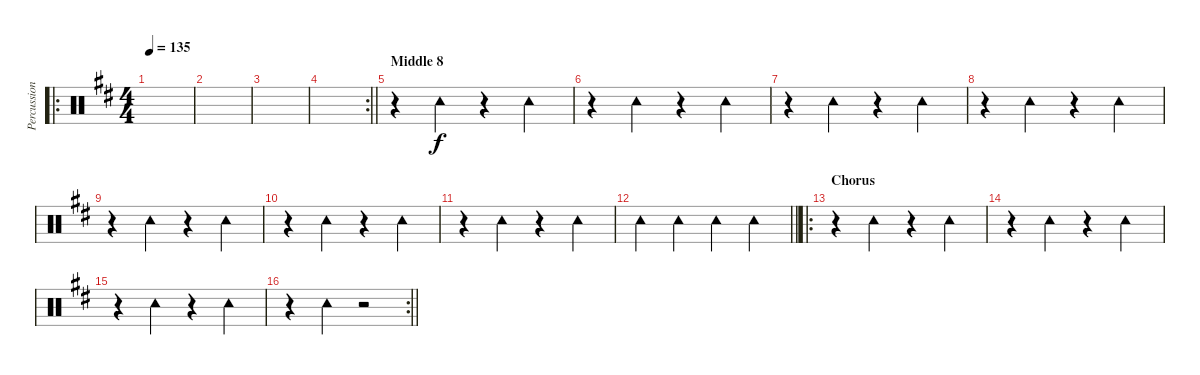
\track ("Percussion" "Percussion") {instrument percussion}
\staff {score}
\articulation defaults
\ro
\ts (4 4)
\tempo 135
\clef neutral
\ks d
|
|
|
\rc 2
\barLineRight lightlight
|
\section ("" "Middle 8")
r.4 "Tambourine (hit)".4 r.4 "Tambourine (hit)".4 |
r.4 "Tambourine (hit)".4 r.4 "Tambourine (hit)".4 |
r.4 "Tambourine (hit)".4 r.4 "Tambourine (hit)".4 |
r.4 "Tambourine (hit)".4 r.4 "Tambourine (hit)".4 |
r.4 "Tambourine (hit)".4 r.4 "Tambourine (hit)".4 |
r.4 "Tambourine (hit)".4 r.4 "Tambourine (hit)".4 |
r.4 "Tambourine (hit)".4 r.4 "Tambourine (hit)".4 |
\barLineRight lightlight "Tambourine (hit)".4 "Tambourine (hit)".4 "Tambourine (hit)".4 "Tambourine (hit)".4
|
\ro
\section ("" "Chorus")
r.4 "Tambourine (hit)".4 r.4 "Tambourine (hit)".4 |
r.4 "Tambourine (hit)".4 r.4 "Tambourine (hit)".4 |
r.4 "Tambourine (hit)".4 r.4 "Tambourine (hit)".4 |
\rc 2
\barLineRight lightlight
r.4 "Tambourine (hit)".4 r.2
